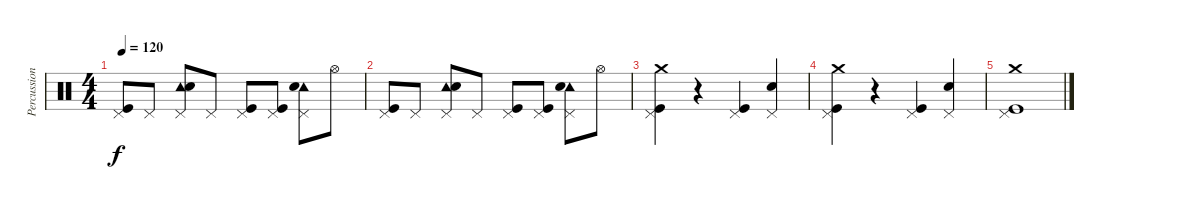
\track ("Percussioni" "Percussion") {instrument percussion}
\staff {score}
\articulation defaults
\ts (4 4)
\tempo 120
\clef neutral
\ks c
("Pedal Hi-Hat (hit)" "Kick (hit)").8{dy f} "Pedal Hi-Hat (hit)".8 ("Pedal Hi-Hat (hit)" "Tambourine (hit)" "Electric Snare (hit)").8 "Pedal Hi-Hat (hit)".8 ("Pedal Hi-Hat (hit)" "Kick (hit)").8 ("Pedal Hi-Hat (hit)" "Kick (hit)").8 ("Pedal Hi-Hat (hit)" "Tambourine (hit)" "Electric Snare (hit)").8 "Hi-Hat (open)".8 |
("Pedal Hi-Hat (hit)" "Kick (hit)").8 "Pedal Hi-Hat (hit)".8 ("Pedal Hi-Hat (hit)" "Tambourine (hit)" "Electric Snare (hit)").8 "Pedal Hi-Hat (hit)".8 ("Pedal Hi-Hat (hit)" "Kick (hit)").8 ("Pedal Hi-Hat (hit)" "Kick (hit)").8 ("Pedal Hi-Hat (hit)" "Tambourine (hit)" "Electric Snare (hit)").8 "Hi-Hat (open)".8 |
("Pedal Hi-Hat (hit)" "Crash medium (hit)" "Kick (hit)").4 r.4 ("Pedal Hi-Hat (hit)" "Kick (hit)").4 ("Pedal Hi-Hat (hit)" "Electric Snare (hit)").4 |
("Pedal Hi-Hat (hit)" "Crash medium (hit)" "Kick (hit)").4 r.4 ("Pedal Hi-Hat (hit)" "Kick (hit)").4 ("Pedal Hi-Hat (hit)" "Electric Snare (hit)").4 |
("Pedal Hi-Hat (hit)" "Crash medium (hit)" "Kick (hit)").1
